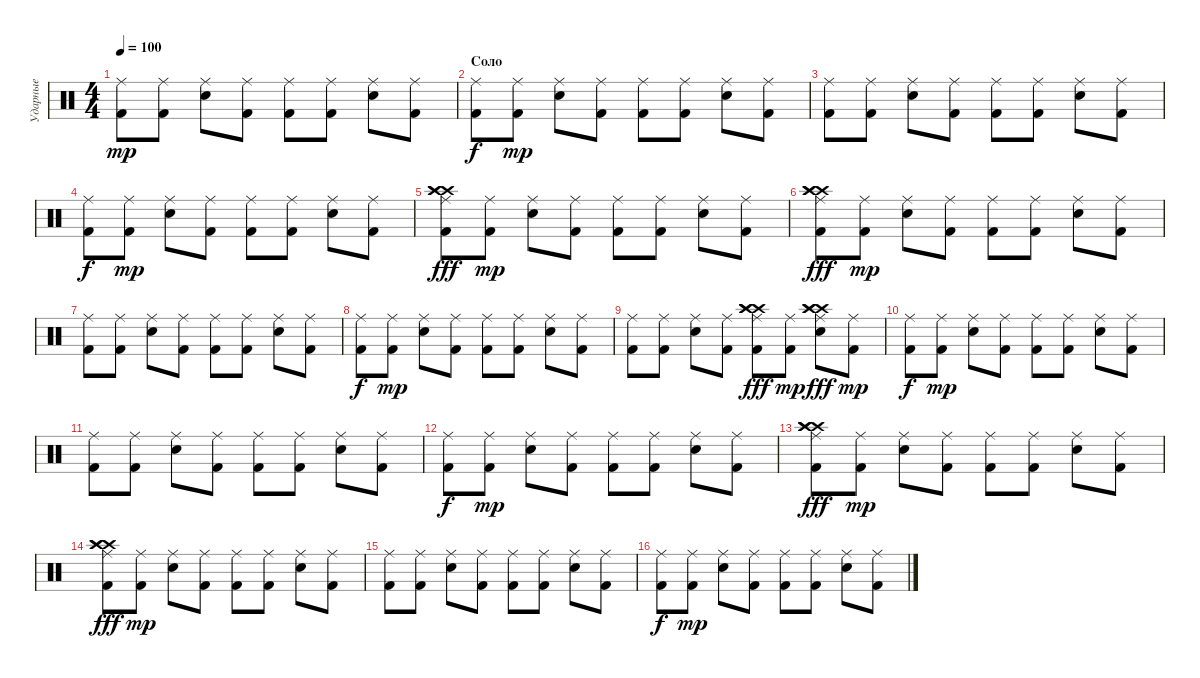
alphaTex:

\track ("Ударные" "Ударные") {instrument percussion}
\staff {score}
\articulation defaults
\ts (4 4)
\tempo 100
\clef neutral
\ks c
("Kick (hit) 2" "Ride (middle)").8{dy mp} ("Kick (hit) 2" "Ride (middle)").8 ("Electric Snare (hit)" "Ride (middle)").8 ("Kick (hit) 2" "Ride (middle)").8 ("Kick (hit) 2" "Ride (middle)").8 ("Kick (hit) 2" "Ride (middle)").8 ("Electric Snare (hit)" "Ride (middle)").8 ("Kick (hit) 2" "Ride (middle)").8 |
\section ("" "Соло")
("Kick (hit) 2" "Ride (middle)").8{dy f} ("Kick (hit) 2" "Ride (middle)").8{dy mp} ("Electric Snare (hit)" "Ride (middle)").8 ("Kick (hit) 2" "Ride (middle)").8 ("Kick (hit) 2" "Ride (middle)").8 ("Kick (hit) 2" "Ride (middle)").8 ("Electric Snare (hit)" "Ride (middle)").8 ("Kick (hit) 2" "Ride (middle)").8 |
("Kick (hit) 2" "Ride (middle)").8 ("Kick (hit) 2" "Ride (middle)").8 ("Electric Snare (hit)" "Ride (middle)").8 ("Kick (hit) 2" "Ride (middle)").8 ("Kick (hit) 2" "Ride (middle)").8 ("Kick (hit) 2" "Ride (middle)").8 ("Electric Snare (hit)" "Ride (middle)").8 ("Kick (hit) 2" "Ride (middle)").8 |
("Kick (hit) 2" "Ride (middle)").8{dy f} ("Kick (hit) 2" "Ride (middle)").8{dy mp} ("Electric Snare (hit)" "Ride (middle)").8 ("Kick (hit) 2" "Ride (middle)").8 ("Kick (hit) 2" "Ride (middle)").8 ("Kick (hit) 2" "Ride (middle)").8 ("Electric Snare (hit)" "Ride (middle)").8 ("Kick (hit) 2" "Ride (middle)").8 |
("Kick (hit) 2" "Ride (middle)" "Crash high (hit)" "Crash high (hit)" "Crash high (hit)").8{dy fff} ("Kick (hit) 2" "Ride (middle)").8{dy mp} ("Electric Snare (hit)" "Ride (middle)").8 ("Kick (hit) 2" "Ride (middle)").8 ("Kick (hit) 2" "Ride (middle)").8 ("Kick (hit) 2" "Ride (middle)").8 ("Electric Snare (hit)" "Ride (middle)").8 ("Kick (hit) 2" "Ride (middle)").8 |
("Kick (hit) 2" "Ride (middle)" "Crash high (hit)" "Crash high (hit)" "Crash high (hit)").8{dy fff} ("Kick (hit) 2" "Ride (middle)").8{dy mp} ("Electric Snare (hit)" "Ride (middle)").8 ("Kick (hit) 2" "Ride (middle)").8 ("Kick (hit) 2" "Ride (middle)").8 ("Kick (hit) 2" "Ride (middle)").8 ("Electric Snare (hit)" "Ride (middle)").8 ("Kick (hit) 2" "Ride (middle)").8 |
("Kick (hit) 2" "Ride (middle)").8 ("Kick (hit) 2" "Ride (middle)").8 ("Electric Snare (hit)" "Ride (middle)").8 ("Kick (hit) 2" "Ride (middle)").8 ("Kick (hit) 2" "Ride (middle)").8 ("Kick (hit) 2" "Ride (middle)").8 ("Electric Snare (hit)" "Ride (middle)").8 ("Kick (hit) 2" "Ride (middle)").8 |
("Kick (hit) 2" "Ride (middle)").8{dy f} ("Kick (hit) 2" "Ride (middle)").8{dy mp} ("Electric Snare (hit)" "Ride (middle)").8 ("Kick (hit) 2" "Ride (middle)").8 ("Kick (hit) 2" "Ride (middle)").8 ("Kick (hit) 2" "Ride (middle)").8 ("Electric Snare (hit)" "Ride (middle)").8 ("Kick (hit) 2" "Ride (middle)").8 |
("Kick (hit) 2" "Ride (middle)").8 ("Kick (hit) 2" "Ride (middle)").8 ("Electric Snare (hit)" "Ride (middle)").8 ("Kick (hit) 2" "Ride (middle)").8 ("Kick (hit) 2" "Ride (middle)" "Crash high (hit)" "Crash high (hit)" "Crash high (hit)").8{dy fff} ("Kick (hit) 2" "Ride (middle)").8{dy mp} ("Electric Snare (hit)" "Ride (middle)" "Crash high (hit)" "Crash high (hit)" "Crash high (hit)").8{dy fff} ("Kick (hit) 2" "Ride (middle)").8{dy mp} |
("Kick (hit) 2" "Ride (middle)").8{dy f} ("Kick (hit) 2" "Ride (middle)").8{dy mp} ("Electric Snare (hit)" "Ride (middle)").8 ("Kick (hit) 2" "Ride (middle)").8 ("Kick (hit) 2" "Ride (middle)").8 ("Kick (hit) 2" "Ride (middle)").8 ("Electric Snare (hit)" "Ride (middle)").8 ("Kick (hit) 2" "Ride (middle)").8 |
("Kick (hit) 2" "Ride (middle)").8 ("Kick (hit) 2" "Ride (middle)").8 ("Electric Snare (hit)" "Ride (middle)").8 ("Kick (hit) 2" "Ride (middle)").8 ("Kick (hit) 2" "Ride (middle)").8 ("Kick (hit) 2" "Ride (middle)").8 ("Electric Snare (hit)" "Ride (middle)").8 ("Kick (hit) 2" "Ride (middle)").8 |
("Kick (hit) 2" "Ride (middle)").8{dy f} ("Kick (hit) 2" "Ride (middle)").8{dy mp} ("Electric Snare (hit)" "Ride (middle)").8 ("Kick (hit) 2" "Ride (middle)").8 ("Kick (hit) 2" "Ride (middle)").8 ("Kick (hit) 2" "Ride (middle)").8 ("Electric Snare (hit)" "Ride (middle)").8 ("Kick (hit) 2" "Ride (middle)").8 |
("Kick (hit) 2" "Ride (middle)" "Crash high (hit)" "Crash high (hit)" "Crash high (hit)").8{dy fff} ("Kick (hit) 2" "Ride (middle)").8{dy mp} ("Electric Snare (hit)" "Ride (middle)").8 ("Kick (hit) 2" "Ride (middle)").8 ("Kick (hit) 2" "Ride (middle)").8 ("Kick (hit) 2" "Ride (middle)").8 ("Electric Snare (hit)" "Ride (middle)").8 ("Kick (hit) 2" "Ride (middle)").8 |
("Kick (hit) 2" "Ride (middle)" "Crash high (hit)" "Crash high (hit)" "Crash high (hit)").8{dy fff} ("Kick (hit) 2" "Ride (middle)").8{dy mp} ("Electric Snare (hit)" "Ride (middle)").8 ("Kick (hit) 2" "Ride (middle)").8 ("Kick (hit) 2" "Ride (middle)").8 ("Kick (hit) 2" "Ride (middle)").8 ("Electric Snare (hit)" "Ride (middle)").8 ("Kick (hit) 2" "Ride (middle)").8 |
("Kick (hit) 2" "Ride (middle)").8 ("Kick (hit) 2" "Ride (middle)").8 ("Electric Snare (hit)" "Ride (middle)").8 ("Kick (hit) 2" "Ride (middle)").8 ("Kick (hit) 2" "Ride (middle)").8 ("Kick (hit) 2" "Ride (middle)").8 ("Electric Snare (hit)" "Ride (middle)").8 ("Kick (hit) 2" "Ride (middle)").8 |
("Kick (hit) 2" "Ride (middle)").8{dy f} ("Kick (hit) 2" "Ride (middle)").8{dy mp} ("Electric Snare (hit)" "Ride (middle)").8 ("Kick (hit) 2" "Ride (middle)").8 ("Kick (hit) 2" "Ride (middle)").8 ("Kick (hit) 2" "Ride (middle)").8 ("Electric Snare (hit)" "Ride (middle)").8 ("Kick (hit) 2" "Ride (middle)").8
